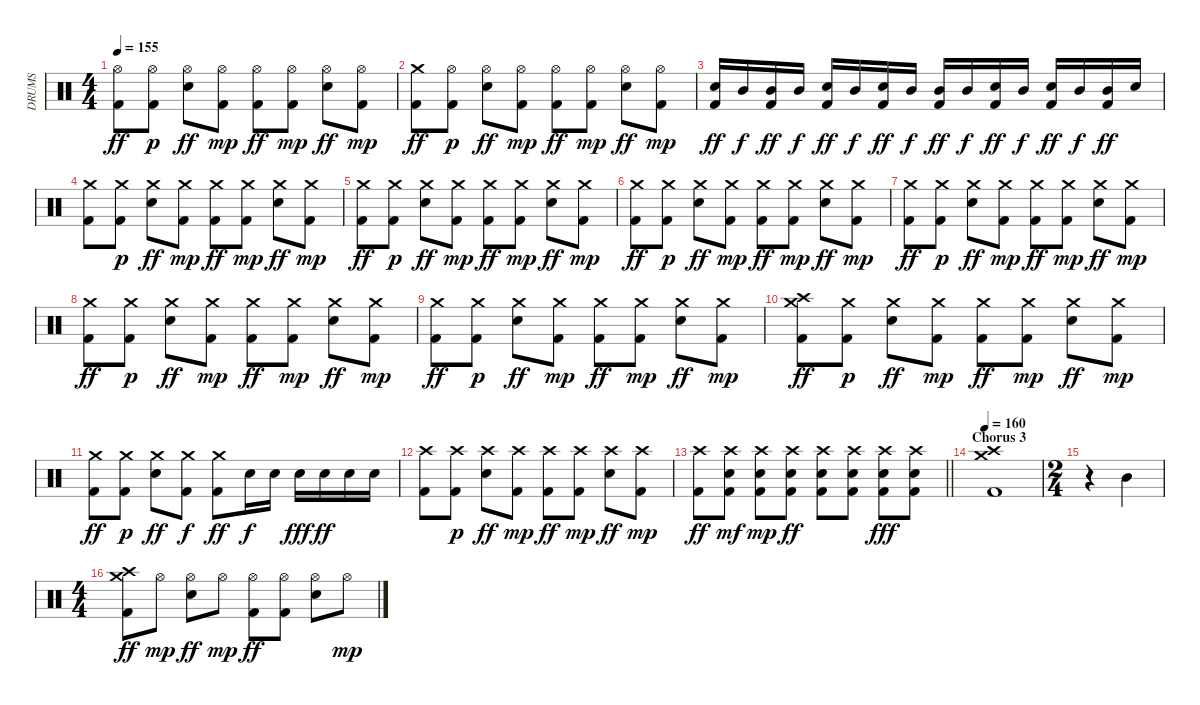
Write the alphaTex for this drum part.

\track ("DRUMS" "DRUMS") {instrument percussion}
\staff {score}
\articulation defaults
\ts (4 4)
\tempo 155
\clef neutral
\ks c
("Hi-Hat (open)" "Kick (hit) 2").8{dy ff} ("Hi-Hat (open)" "Kick (hit) 2").8{dy p} ("Hi-Hat (open)" "Snare (hit) 2").8{dy ff} ("Hi-Hat (open)" "Kick (hit) 2").8{dy mp} ("Hi-Hat (open)" "Kick (hit) 2").8{dy ff} ("Hi-Hat (open)" "Kick (hit) 2").8{dy mp} ("Hi-Hat (open)" "Snare (hit) 2").8{dy ff} ("Hi-Hat (open)" "Kick (hit) 2").8{dy mp} |
("Crash medium (hit)" "Kick (hit) 2").8{dy ff} ("Hi-Hat (open)" "Kick (hit) 2").8{dy p} ("Hi-Hat (open)" "Snare (hit) 2").8{dy ff} ("Hi-Hat (open)" "Kick (hit) 2").8{dy mp} ("Hi-Hat (open)" "Kick (hit) 2").8{dy ff} ("Hi-Hat (open)" "Kick (hit) 2").8{dy mp} ("Hi-Hat (open)" "Snare (hit) 2").8{dy ff} ("Hi-Hat (open)" "Kick (hit) 2").8{dy mp} |
("Electric Snare (hit)" "Kick (hit) 2").16{dy ff} "Mid Tom (hit)".16{dy f} ("Mid Tom (hit)" "Kick (hit) 2").16{dy ff} "Mid Tom (hit)".16{dy f} ("Electric Snare (hit)" "Kick (hit) 2").16{dy ff} "Mid Tom (hit)".16{dy f} ("Electric Snare (hit)" "Kick (hit) 2").16{dy ff} "Mid Tom (hit)".16{dy f} ("Mid Tom (hit)" "Kick (hit) 2").16{dy ff} "Mid Tom (hit)".16{dy f} ("Electric Snare (hit)" "Kick (hit) 2").16{dy ff} "Mid Tom (hit)".16{dy f} ("Electric Snare (hit)" "Kick (hit) 2").16{dy ff} "Mid Tom (hit)".16{dy f} ("Mid Tom (hit)" "Kick (hit) 2").16{dy ff} "Snare (hit) 2".16 |
("Crash medium (hit)" "Kick (hit) 2").8 ("Crash medium (hit)" "Kick (hit) 2").8{dy p} ("Crash medium (hit)" "Snare (hit) 2").8{dy ff} ("Crash medium (hit)" "Kick (hit) 2").8{dy mp} ("Crash medium (hit)" "Kick (hit) 2").8{dy ff} ("Crash medium (hit)" "Kick (hit) 2").8{dy mp} ("Crash medium (hit)" "Snare (hit) 2").8{dy ff} ("Crash medium (hit)" "Kick (hit) 2").8{dy mp} |
("Crash medium (hit)" "Kick (hit) 2").8{dy ff} ("Crash medium (hit)" "Kick (hit) 2").8{dy p} ("Crash medium (hit)" "Snare (hit) 2").8{dy ff} ("Crash medium (hit)" "Kick (hit) 2").8{dy mp} ("Crash medium (hit)" "Kick (hit) 2").8{dy ff} ("Crash medium (hit)" "Kick (hit) 2").8{dy mp} ("Crash medium (hit)" "Snare (hit) 2").8{dy ff} ("Crash medium (hit)" "Kick (hit) 2").8{dy mp} |
("Crash medium (hit)" "Kick (hit) 2").8{dy ff} ("Crash medium (hit)" "Kick (hit) 2").8{dy p} ("Crash medium (hit)" "Snare (hit) 2").8{dy ff} ("Crash medium (hit)" "Kick (hit) 2").8{dy mp} ("Crash medium (hit)" "Kick (hit) 2").8{dy ff} ("Crash medium (hit)" "Kick (hit) 2").8{dy mp} ("Crash medium (hit)" "Snare (hit) 2").8{dy ff} ("Crash medium (hit)" "Kick (hit) 2").8{dy mp} |
("Crash medium (hit)" "Kick (hit) 2").8{dy ff} ("Crash medium (hit)" "Kick (hit) 2").8{dy p} ("Crash medium (hit)" "Snare (hit) 2").8{dy ff} ("Crash medium (hit)" "Kick (hit) 2").8{dy mp} ("Crash medium (hit)" "Kick (hit) 2").8{dy ff} ("Crash medium (hit)" "Kick (hit) 2").8{dy mp} ("Crash medium (hit)" "Snare (hit) 2").8{dy ff} ("Crash medium (hit)" "Kick (hit) 2").8{dy mp} |
("Crash medium (hit)" "Kick (hit) 2").8{dy ff} ("Crash medium (hit)" "Kick (hit) 2").8{dy p} ("Crash medium (hit)" "Snare (hit) 2").8{dy ff} ("Crash medium (hit)" "Kick (hit) 2").8{dy mp} ("Crash medium (hit)" "Kick (hit) 2").8{dy ff} ("Crash medium (hit)" "Kick (hit) 2").8{dy mp} ("Crash medium (hit)" "Snare (hit) 2").8{dy ff} ("Crash medium (hit)" "Kick (hit) 2").8{dy mp} |
("Crash medium (hit)" "Kick (hit) 2").8{dy ff} ("Crash medium (hit)" "Kick (hit) 2").8{dy p} ("Crash medium (hit)" "Snare (hit) 2").8{dy ff} ("Crash medium (hit)" "Kick (hit) 2").8{dy mp} ("Crash medium (hit)" "Kick (hit) 2").8{dy ff} ("Crash medium (hit)" "Kick (hit) 2").8{dy mp} ("Crash medium (hit)" "Snare (hit) 2").8{dy ff} ("Crash medium (hit)" "Kick (hit) 2").8{dy mp} |
("Crash medium (hit)" "Crash high (hit)" "Kick (hit) 2").8{dy ff} ("Crash medium (hit)" "Kick (hit) 2").8{dy p} ("Crash medium (hit)" "Snare (hit) 2").8{dy ff} ("Crash medium (hit)" "Kick (hit) 2").8{dy mp} ("Crash medium (hit)" "Kick (hit) 2").8{dy ff} ("Crash medium (hit)" "Kick (hit) 2").8{dy mp} ("Crash medium (hit)" "Snare (hit) 2").8{dy ff} ("Crash medium (hit)" "Kick (hit) 2").8{dy mp} |
("Crash medium (hit)" "Kick (hit) 2").8{dy ff} ("Crash medium (hit)" "Kick (hit) 2").8{dy p} ("Crash medium (hit)" "Snare (hit) 2").8{dy ff} ("Crash medium (hit)" "Kick (hit) 2").8{dy f} ("Crash medium (hit)" "Kick (hit) 2").8{dy ff} "Electric Snare (hit)".16{dy f} "Snare (hit) 2".16 "Electric Snare (hit)".16{dy fff} "Snare (hit) 2".16{dy ff} "Electric Snare (hit)".16 "Snare (hit) 2".16 |
("Crash high (hit)" "Kick (hit) 2").8 ("Crash high (hit)" "Kick (hit) 2").8{dy p} ("Crash high (hit)" "Snare (hit) 2").8{dy ff} ("Crash high (hit)" "Kick (hit) 2").8{dy mp} ("Crash high (hit)" "Kick (hit) 2").8{dy ff} ("Crash high (hit)" "Kick (hit) 2").8{dy mp} ("Crash high (hit)" "Snare (hit) 2").8{dy ff} ("Crash high (hit)" "Kick (hit) 2").8{dy mp} |
\barLineRight lightlight
("Crash high (hit)" "Kick (hit) 2").8{dy ff} ("Crash high (hit)" "Snare (hit) 2" "Kick (hit) 2").8{dy mf} ("Crash high (hit)" "Snare (hit) 2" "Kick (hit) 2").8{dy mp} ("Crash high (hit)" "Snare (hit) 2" "Kick (hit) 2").8{dy ff} ("Crash high (hit)" "Snare (hit) 2" "Kick (hit) 2").8 ("Crash high (hit)" "Snare (hit) 2" "Kick (hit) 2").8 ("Crash high (hit)" "Snare (hit) 2" "Kick (hit) 2").8{dy fff} ("Crash high (hit)" "Snare (hit) 2" "Kick (hit) 2").8 |
\section ("" "Chorus 3")
\tempo 160
("Crash high (hit)" "Crash medium (hit)" "Kick (hit) 2").1 |
\ts (2 4)
r.4 "Mid Tom (hit)".4 |
\ts (4 4)
("Crash high (hit)" "Crash medium (hit)" "Kick (hit) 2").8{dy ff} "Hi-Hat (open)".8{dy mp} ("Hi-Hat (open)" "Snare (hit) 2").8{dy ff} "Hi-Hat (open)".8{dy mp} ("Hi-Hat (open)" "Kick (hit) 2").8{dy ff} ("Hi-Hat (open)" "Kick (hit) 2").8 ("Hi-Hat (open)" "Snare (hit) 2").8 "Hi-Hat (open)".8{dy mp}
